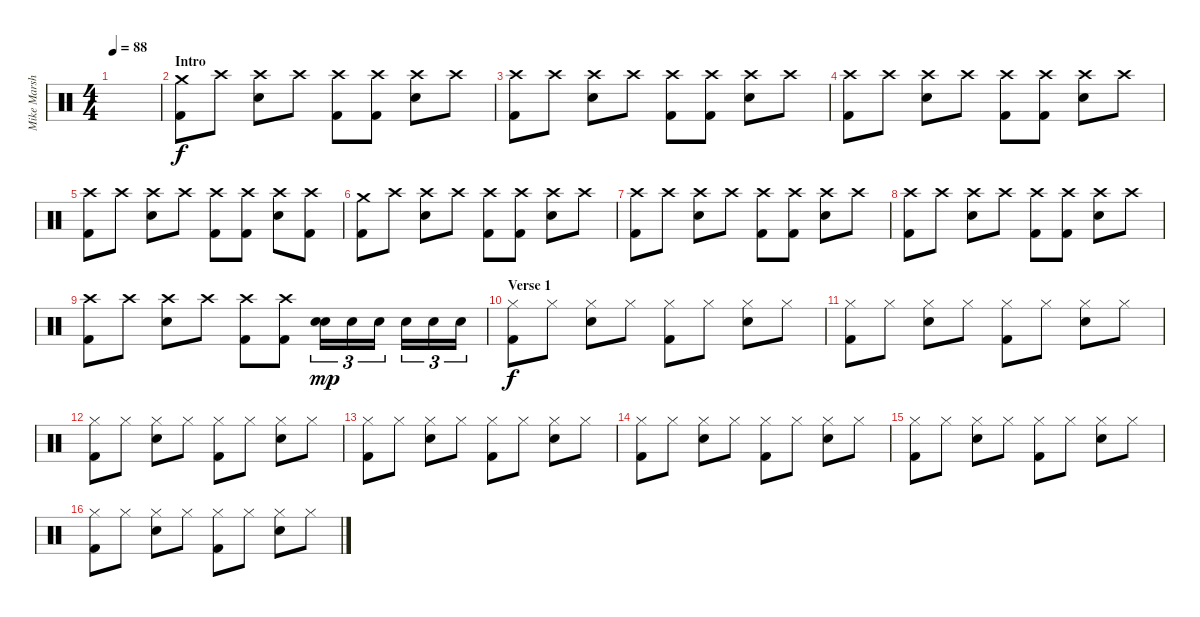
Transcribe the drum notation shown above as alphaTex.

\track ("Mike Marsh" "Mike Marsh") {instrument percussion}
\staff {score}
\articulation defaults
\ts (4 4)
\tempo 88
\clef neutral
\ks c
|
\section ("" "Intro")
("Crash medium (hit)" "Kick (hit) 2").8 "Crash high (hit)".8 ("Crash high (hit)" "Snare (hit) 2").8 "Crash high (hit)".8 ("Crash high (hit)" "Kick (hit) 2").8 ("Crash high (hit)" "Kick (hit) 2").8 ("Crash high (hit)" "Snare (hit) 2").8 "Crash high (hit)".8 |
("Crash high (hit)" "Kick (hit) 2").8 "Crash high (hit)".8 ("Crash high (hit)" "Snare (hit) 2").8 "Crash high (hit)".8 ("Crash high (hit)" "Kick (hit) 2").8 ("Crash high (hit)" "Kick (hit) 2").8 ("Crash high (hit)" "Snare (hit) 2").8 "Crash high (hit)".8 |
("Crash high (hit)" "Kick (hit) 2").8 "Crash high (hit)".8 ("Crash high (hit)" "Snare (hit) 2").8 "Crash high (hit)".8 ("Crash high (hit)" "Kick (hit) 2").8 ("Crash high (hit)" "Kick (hit) 2").8 ("Crash high (hit)" "Snare (hit) 2").8 "Crash high (hit)".8 |
("Crash high (hit)" "Kick (hit) 2").8 "Crash high (hit)".8 ("Crash high (hit)" "Snare (hit) 2").8 "Crash high (hit)".8 ("Crash high (hit)" "Kick (hit) 2").8 ("Crash high (hit)" "Kick (hit) 2").8 ("Crash high (hit)" "Snare (hit) 2").8 ("Crash high (hit)" "Kick (hit) 2").8 |
("Crash medium (hit)" "Kick (hit) 2").8 "Crash high (hit)".8 ("Crash high (hit)" "Snare (hit) 2").8 "Crash high (hit)".8 ("Crash high (hit)" "Kick (hit) 2").8 ("Crash high (hit)" "Kick (hit) 2").8 ("Crash high (hit)" "Snare (hit) 2").8 "Crash high (hit)".8 |
("Crash high (hit)" "Kick (hit) 2").8 "Crash high (hit)".8 ("Crash high (hit)" "Snare (hit) 2").8 "Crash high (hit)".8 ("Crash high (hit)" "Kick (hit) 2").8 ("Crash high (hit)" "Kick (hit) 2").8 ("Crash high (hit)" "Snare (hit) 2").8 "Crash high (hit)".8 |
("Crash high (hit)" "Kick (hit) 2").8 "Crash high (hit)".8 ("Crash high (hit)" "Snare (hit) 2").8 "Crash high (hit)".8 ("Crash high (hit)" "Kick (hit) 2").8 ("Crash high (hit)" "Kick (hit) 2").8 ("Crash high (hit)" "Snare (hit) 2").8 "Crash high (hit)".8 |
("Crash high (hit)" "Kick (hit) 2").8 "Crash high (hit)".8 ("Crash high (hit)" "Snare (hit) 2").8 "Crash high (hit)".8 ("Crash high (hit)" "Kick (hit) 2").8 ("Crash high (hit)" "Kick (hit) 2").8 ("Snare (hit) 2" "Snare (hit) 2").16{tu (3 2) dy mp} "Snare (hit) 2".16{tu (3 2)} "Snare (hit) 2".16{tu (3 2)} "Snare (hit) 2".16{tu (3 2)} "Snare (hit) 2".16{tu (3 2)} "Snare (hit) 2".16{tu (3 2)} |
\section ("" "Verse 1")
("Hi-Hat (closed)" "Kick (hit) 2").8{dy f} "Hi-Hat (closed)".8 ("Hi-Hat (closed)" "Snare (hit) 2").8 "Hi-Hat (closed)".8 ("Hi-Hat (closed)" "Kick (hit) 2").8 "Hi-Hat (closed)".8 ("Hi-Hat (closed)" "Snare (hit) 2").8 "Hi-Hat (closed)".8 |
("Hi-Hat (closed)" "Kick (hit) 2").8 "Hi-Hat (closed)".8 ("Hi-Hat (closed)" "Snare (hit) 2").8 "Hi-Hat (closed)".8 ("Hi-Hat (closed)" "Kick (hit) 2").8 "Hi-Hat (closed)".8 ("Hi-Hat (closed)" "Snare (hit) 2").8 "Hi-Hat (closed)".8 |
("Hi-Hat (closed)" "Kick (hit) 2").8 "Hi-Hat (closed)".8 ("Hi-Hat (closed)" "Snare (hit) 2").8 "Hi-Hat (closed)".8 ("Hi-Hat (closed)" "Kick (hit) 2").8 "Hi-Hat (closed)".8 ("Hi-Hat (closed)" "Snare (hit) 2").8 "Hi-Hat (closed)".8 |
("Hi-Hat (closed)" "Kick (hit) 2").8 "Hi-Hat (closed)".8 ("Hi-Hat (closed)" "Snare (hit) 2").8 "Hi-Hat (closed)".8 ("Hi-Hat (closed)" "Kick (hit) 2").8 "Hi-Hat (closed)".8 ("Hi-Hat (closed)" "Snare (hit) 2").8 "Hi-Hat (closed)".8 |
("Hi-Hat (closed)" "Kick (hit) 2").8 "Hi-Hat (closed)".8 ("Hi-Hat (closed)" "Snare (hit) 2").8 "Hi-Hat (closed)".8 ("Hi-Hat (closed)" "Kick (hit) 2").8 "Hi-Hat (closed)".8 ("Hi-Hat (closed)" "Snare (hit) 2").8 "Hi-Hat (closed)".8 |
("Hi-Hat (closed)" "Kick (hit) 2").8 "Hi-Hat (closed)".8 ("Hi-Hat (closed)" "Snare (hit) 2").8 "Hi-Hat (closed)".8 ("Hi-Hat (closed)" "Kick (hit) 2").8 "Hi-Hat (closed)".8 ("Hi-Hat (closed)" "Snare (hit) 2").8 "Hi-Hat (closed)".8 |
("Hi-Hat (closed)" "Kick (hit) 2").8 "Hi-Hat (closed)".8 ("Hi-Hat (closed)" "Snare (hit) 2").8 "Hi-Hat (closed)".8 ("Hi-Hat (closed)" "Kick (hit) 2").8 "Hi-Hat (closed)".8 ("Hi-Hat (closed)" "Snare (hit) 2").8 "Hi-Hat (closed)".8
